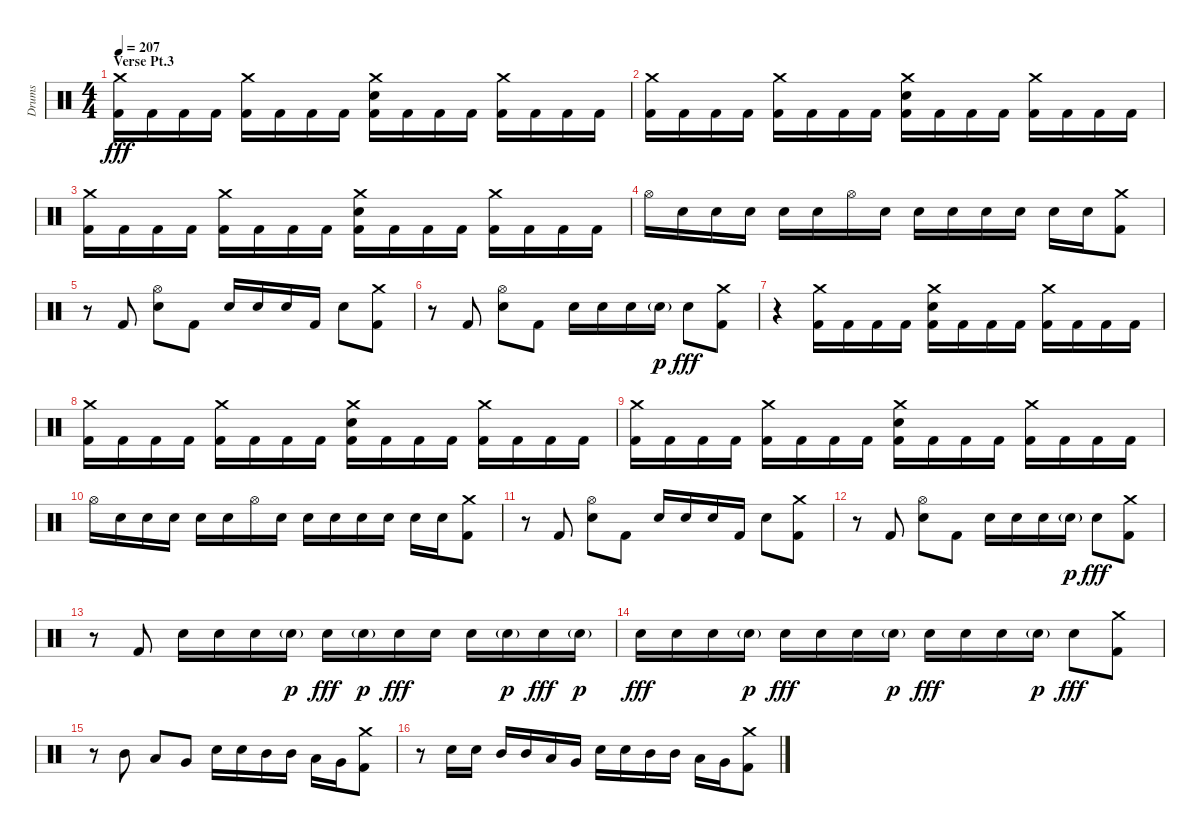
\track ("Drums" "Drums") {instrument percussion}
\staff {score}
\articulation defaults
\ts (4 4)
\section ("" "Verse Pt.3")
\tempo 207
\clef neutral
\ks c
("Crash medium (hit)" "Kick (hit) 2").16{dy fff} "Kick (hit) 2".16 "Kick (hit) 2".16 "Kick (hit) 2".16 ("Crash medium (hit)" "Kick (hit) 2").16 "Kick (hit) 2".16 "Kick (hit) 2".16 "Kick (hit) 2".16 ("Crash medium (hit)" "Electric Snare (hit)" "Kick (hit) 2").16 "Kick (hit) 2".16 "Kick (hit) 2".16 "Kick (hit) 2".16 ("Crash medium (hit)" "Kick (hit) 2").16 "Kick (hit) 2".16 "Kick (hit) 2".16 "Kick (hit) 2".16 |
("Crash medium (hit)" "Kick (hit) 2").16 "Kick (hit) 2".16 "Kick (hit) 2".16 "Kick (hit) 2".16 ("Crash medium (hit)" "Kick (hit) 2").16 "Kick (hit) 2".16 "Kick (hit) 2".16 "Kick (hit) 2".16 ("Crash medium (hit)" "Electric Snare (hit)" "Kick (hit) 2").16 "Kick (hit) 2".16 "Kick (hit) 2".16 "Kick (hit) 2".16 ("Crash medium (hit)" "Kick (hit) 2").16 "Kick (hit) 2".16 "Kick (hit) 2".16 "Kick (hit) 2".16 |
("Crash medium (hit)" "Kick (hit) 2").16 "Kick (hit) 2".16 "Kick (hit) 2".16 "Kick (hit) 2".16 ("Crash medium (hit)" "Kick (hit) 2").16 "Kick (hit) 2".16 "Kick (hit) 2".16 "Kick (hit) 2".16 ("Crash medium (hit)" "Electric Snare (hit)" "Kick (hit) 2").16 "Kick (hit) 2".16 "Kick (hit) 2".16 "Kick (hit) 2".16 ("Crash medium (hit)" "Kick (hit) 2").16 "Kick (hit) 2".16 "Kick (hit) 2".16 "Kick (hit) 2".16 |
"Hi-Hat (open)".16 "Electric Snare (hit)".16 "Electric Snare (hit)".16 "Electric Snare (hit)".16 "Electric Snare (hit)".16 "Electric Snare (hit)".16 "Hi-Hat (open)".16 "Electric Snare (hit)".16 "Electric Snare (hit)".16 "Electric Snare (hit)".16 "Electric Snare (hit)".16 "Electric Snare (hit)".16 "Electric Snare (hit)".16 "Electric Snare (hit)".16 ("Crash medium (hit)" "Kick (hit) 2").8 |
r.8 "Kick (hit) 2".8 ("Hi-Hat (open)" "Electric Snare (hit)").8 "Kick (hit) 2".8 "Electric Snare (hit)".16 "Electric Snare (hit)".16 "Electric Snare (hit)".16 "Kick (hit) 2".16 "Electric Snare (hit)".8 ("Crash medium (hit)" "Kick (hit) 2").8 |
r.8 "Kick (hit) 2".8 ("Hi-Hat (open)" "Electric Snare (hit)").8 "Kick (hit) 2".8 "Electric Snare (hit)".16 "Electric Snare (hit)".16 "Electric Snare (hit)".16 "Electric Snare (hit)"{g}.16{dy p} "Electric Snare (hit)".8{dy fff} ("Crash medium (hit)" "Kick (hit) 2").8 |
r.4 ("Crash medium (hit)" "Kick (hit) 2").16 "Kick (hit) 2".16 "Kick (hit) 2".16 "Kick (hit) 2".16 ("Crash medium (hit)" "Electric Snare (hit)" "Kick (hit) 2").16 "Kick (hit) 2".16 "Kick (hit) 2".16 "Kick (hit) 2".16 ("Crash medium (hit)" "Kick (hit) 2").16 "Kick (hit) 2".16 "Kick (hit) 2".16 "Kick (hit) 2".16 |
("Crash medium (hit)" "Kick (hit) 2").16 "Kick (hit) 2".16 "Kick (hit) 2".16 "Kick (hit) 2".16 ("Crash medium (hit)" "Kick (hit) 2").16 "Kick (hit) 2".16 "Kick (hit) 2".16 "Kick (hit) 2".16 ("Crash medium (hit)" "Electric Snare (hit)" "Kick (hit) 2").16 "Kick (hit) 2".16 "Kick (hit) 2".16 "Kick (hit) 2".16 ("Crash medium (hit)" "Kick (hit) 2").16 "Kick (hit) 2".16 "Kick (hit) 2".16 "Kick (hit) 2".16 |
("Crash medium (hit)" "Kick (hit) 2").16 "Kick (hit) 2".16 "Kick (hit) 2".16 "Kick (hit) 2".16 ("Crash medium (hit)" "Kick (hit) 2").16 "Kick (hit) 2".16 "Kick (hit) 2".16 "Kick (hit) 2".16 ("Crash medium (hit)" "Electric Snare (hit)" "Kick (hit) 2").16 "Kick (hit) 2".16 "Kick (hit) 2".16 "Kick (hit) 2".16 ("Crash medium (hit)" "Kick (hit) 2").16 "Kick (hit) 2".16 "Kick (hit) 2".16 "Kick (hit) 2".16 |
"Hi-Hat (open)".16 "Electric Snare (hit)".16 "Electric Snare (hit)".16 "Electric Snare (hit)".16 "Electric Snare (hit)".16 "Electric Snare (hit)".16 "Hi-Hat (open)".16 "Electric Snare (hit)".16 "Electric Snare (hit)".16 "Electric Snare (hit)".16 "Electric Snare (hit)".16 "Electric Snare (hit)".16 "Electric Snare (hit)".16 "Electric Snare (hit)".16 ("Crash medium (hit)" "Kick (hit) 2").8 |
r.8 "Kick (hit) 2".8 ("Hi-Hat (open)" "Electric Snare (hit)").8 "Kick (hit) 2".8 "Electric Snare (hit)".16 "Electric Snare (hit)".16 "Electric Snare (hit)".16 "Kick (hit) 2".16 "Electric Snare (hit)".8 ("Crash medium (hit)" "Kick (hit) 2").8 |
r.8 "Kick (hit) 2".8 ("Hi-Hat (open)" "Electric Snare (hit)").8 "Kick (hit) 2".8 "Electric Snare (hit)".16 "Electric Snare (hit)".16 "Electric Snare (hit)".16 "Electric Snare (hit)"{g}.16{dy p} "Electric Snare (hit)".8{dy fff} ("Crash medium (hit)" "Kick (hit) 2").8 |
r.8 "Kick (hit) 2".8 "Electric Snare (hit)".16 "Electric Snare (hit)".16 "Electric Snare (hit)".16 "Electric Snare (hit)"{g}.16{dy p} "Electric Snare (hit)".16{dy fff} "Electric Snare (hit)"{g}.16{dy p} "Electric Snare (hit)".16{dy fff} "Electric Snare (hit)".16 "Electric Snare (hit)".16 "Electric Snare (hit)"{g}.16{dy p} "Electric Snare (hit)".16{dy fff} "Electric Snare (hit)"{g}.16{dy p} |
"Electric Snare (hit)".16{dy fff} "Electric Snare (hit)".16 "Electric Snare (hit)".16 "Electric Snare (hit)"{g}.16{dy p} "Electric Snare (hit)".16{dy fff} "Electric Snare (hit)".16 "Electric Snare (hit)".16 "Electric Snare (hit)"{g}.16{dy p} "Electric Snare (hit)".16{dy fff} "Electric Snare (hit)".16 "Electric Snare (hit)".16 "Electric Snare (hit)"{g}.16{dy p} "Electric Snare (hit)".8{dy fff} ("Crash medium (hit)" "Kick (hit) 2").8 |
r.8 "Mid Tom (hit)".8 "Low Tom (hit)".8 "Very Low Tom (hit)".8 "Electric Snare (hit)".16 "Electric Snare (hit)".16 "Mid Tom (hit)".16 "Mid Tom (hit)".16 "Low Tom (hit)".16 "Very Low Tom (hit)".16 ("Crash medium (hit)" "Kick (hit) 2").8 |
r.8 "Electric Snare (hit)".16 "Electric Snare (hit)".16 "Mid Tom (hit)".16 "Mid Tom (hit)".16 "Low Tom (hit)".16 "Very Low Tom (hit)".16 "Electric Snare (hit)".16 "Electric Snare (hit)".16 "Mid Tom (hit)".16 "Mid Tom (hit)".16 "Low Tom (hit)".16 "Very Low Tom (hit)".16 ("Crash medium (hit)" "Kick (hit) 2").8
